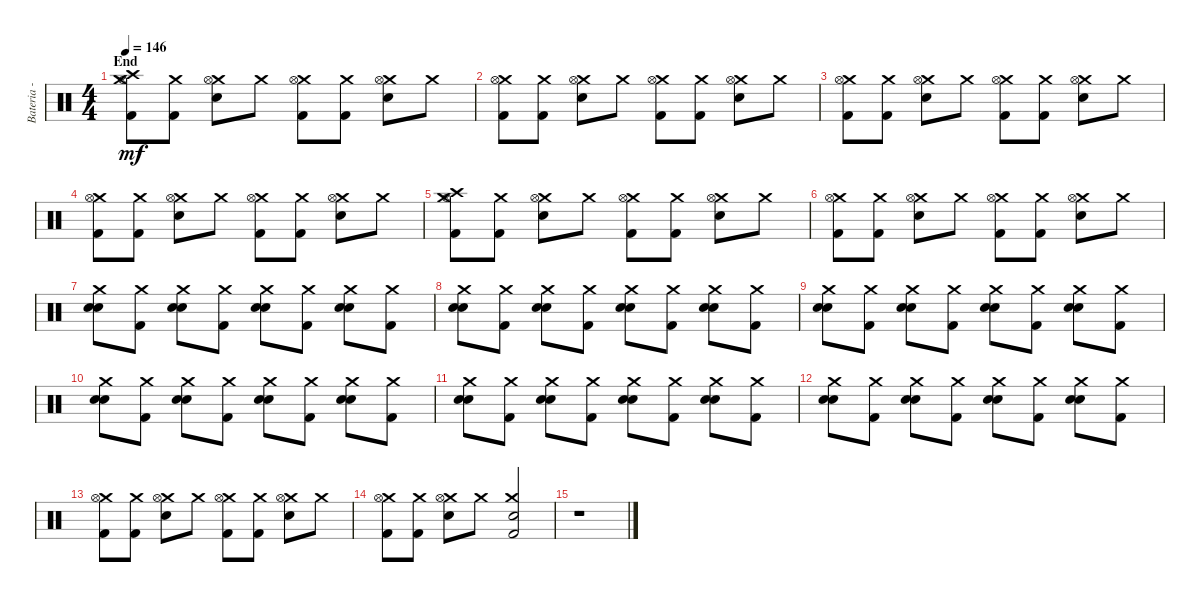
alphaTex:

\track ("Bateria - Larzon" "Bateria - ") {instrument percussion}
\staff {score}
\articulation defaults
\ts (4 4)
\section ("" "End")
\tempo 146
\clef neutral
\ks c
("Kick (hit) 2" "Crash medium (hit)" "Crash high (hit)" "Hi-Hat (open)").8{dy mf} ("Kick (hit) 2" "Crash medium (hit)").8 ("Electric Snare (hit)" "Crash medium (hit)" "Hi-Hat (open)").8 "Crash medium (hit)".8 ("Kick (hit) 2" "Crash medium (hit)" "Hi-Hat (open)").8 ("Kick (hit) 2" "Crash medium (hit)").8 ("Electric Snare (hit)" "Crash medium (hit)" "Hi-Hat (open)").8 "Crash medium (hit)".8 |
("Kick (hit) 2" "Crash medium (hit)" "Hi-Hat (open)").8 ("Kick (hit) 2" "Crash medium (hit)").8 ("Electric Snare (hit)" "Crash medium (hit)" "Hi-Hat (open)").8 "Crash medium (hit)".8 ("Kick (hit) 2" "Crash medium (hit)" "Hi-Hat (open)").8 ("Kick (hit) 2" "Crash medium (hit)").8 ("Electric Snare (hit)" "Crash medium (hit)" "Hi-Hat (open)").8 "Crash medium (hit)".8 |
("Kick (hit) 2" "Crash medium (hit)" "Hi-Hat (open)").8 ("Kick (hit) 2" "Crash medium (hit)").8 ("Electric Snare (hit)" "Crash medium (hit)" "Hi-Hat (open)").8 "Crash medium (hit)".8 ("Kick (hit) 2" "Crash medium (hit)" "Hi-Hat (open)").8 ("Kick (hit) 2" "Crash medium (hit)").8 ("Electric Snare (hit)" "Crash medium (hit)" "Hi-Hat (open)").8 "Crash medium (hit)".8 |
("Kick (hit) 2" "Crash medium (hit)" "Hi-Hat (open)").8 ("Kick (hit) 2" "Crash medium (hit)").8 ("Electric Snare (hit)" "Crash medium (hit)" "Hi-Hat (open)").8 "Crash medium (hit)".8 ("Kick (hit) 2" "Crash medium (hit)" "Hi-Hat (open)").8 ("Kick (hit) 2" "Crash medium (hit)").8 ("Electric Snare (hit)" "Crash medium (hit)" "Hi-Hat (open)").8 "Crash medium (hit)".8 |
("Kick (hit) 2" "Crash medium (hit)" "Crash high (hit)" "Hi-Hat (open)").8 ("Kick (hit) 2" "Crash medium (hit)").8 ("Electric Snare (hit)" "Crash medium (hit)" "Hi-Hat (open)").8 "Crash medium (hit)".8 ("Kick (hit) 2" "Crash medium (hit)" "Hi-Hat (open)").8 ("Kick (hit) 2" "Crash medium (hit)").8 ("Electric Snare (hit)" "Crash medium (hit)" "Hi-Hat (open)").8 "Crash medium (hit)".8 |
("Kick (hit) 2" "Crash medium (hit)" "Hi-Hat (open)").8 ("Kick (hit) 2" "Crash medium (hit)").8 ("Electric Snare (hit)" "Crash medium (hit)" "Hi-Hat (open)").8 "Crash medium (hit)".8 ("Kick (hit) 2" "Crash medium (hit)" "Hi-Hat (open)").8 ("Kick (hit) 2" "Crash medium (hit)").8 ("Electric Snare (hit)" "Crash medium (hit)" "Hi-Hat (open)").8 "Crash medium (hit)".8 |
("Electric Snare (hit)" "Crash medium (hit)" "Electric Snare (hit)").8 ("Kick (hit) 2" "Crash medium (hit)").8 ("Electric Snare (hit)" "Crash medium (hit)" "Electric Snare (hit)").8 ("Kick (hit) 2" "Crash medium (hit)").8 ("Electric Snare (hit)" "Crash medium (hit)" "Electric Snare (hit)").8 ("Kick (hit) 2" "Crash medium (hit)").8 ("Electric Snare (hit)" "Crash medium (hit)" "Electric Snare (hit)").8 ("Kick (hit) 2" "Crash medium (hit)").8 |
("Electric Snare (hit)" "Crash medium (hit)" "Electric Snare (hit)").8 ("Kick (hit) 2" "Crash medium (hit)").8 ("Electric Snare (hit)" "Crash medium (hit)" "Electric Snare (hit)").8 ("Kick (hit) 2" "Crash medium (hit)").8 ("Electric Snare (hit)" "Crash medium (hit)" "Electric Snare (hit)").8 ("Kick (hit) 2" "Crash medium (hit)").8 ("Electric Snare (hit)" "Crash medium (hit)" "Electric Snare (hit)").8 ("Kick (hit) 2" "Crash medium (hit)").8 |
("Electric Snare (hit)" "Crash medium (hit)" "Electric Snare (hit)").8 ("Kick (hit) 2" "Crash medium (hit)").8 ("Electric Snare (hit)" "Crash medium (hit)" "Electric Snare (hit)").8 ("Kick (hit) 2" "Crash medium (hit)").8 ("Electric Snare (hit)" "Crash medium (hit)" "Electric Snare (hit)").8 ("Kick (hit) 2" "Crash medium (hit)").8 ("Electric Snare (hit)" "Crash medium (hit)" "Electric Snare (hit)").8 ("Kick (hit) 2" "Crash medium (hit)").8 |
("Electric Snare (hit)" "Crash medium (hit)" "Electric Snare (hit)").8 ("Kick (hit) 2" "Crash medium (hit)").8 ("Electric Snare (hit)" "Crash medium (hit)" "Electric Snare (hit)").8 ("Kick (hit) 2" "Crash medium (hit)").8 ("Electric Snare (hit)" "Crash medium (hit)" "Electric Snare (hit)").8 ("Kick (hit) 2" "Crash medium (hit)").8 ("Electric Snare (hit)" "Crash medium (hit)" "Electric Snare (hit)").8 ("Kick (hit) 2" "Crash medium (hit)").8 |
("Electric Snare (hit)" "Crash medium (hit)" "Electric Snare (hit)").8 ("Kick (hit) 2" "Crash medium (hit)").8 ("Electric Snare (hit)" "Crash medium (hit)" "Electric Snare (hit)").8 ("Kick (hit) 2" "Crash medium (hit)").8 ("Electric Snare (hit)" "Crash medium (hit)" "Electric Snare (hit)").8 ("Kick (hit) 2" "Crash medium (hit)").8 ("Electric Snare (hit)" "Crash medium (hit)" "Electric Snare (hit)").8 ("Kick (hit) 2" "Crash medium (hit)").8 |
("Electric Snare (hit)" "Crash medium (hit)" "Electric Snare (hit)").8 ("Kick (hit) 2" "Crash medium (hit)").8 ("Electric Snare (hit)" "Crash medium (hit)" "Electric Snare (hit)").8 ("Kick (hit) 2" "Crash medium (hit)").8 ("Electric Snare (hit)" "Crash medium (hit)" "Electric Snare (hit)").8 ("Kick (hit) 2" "Crash medium (hit)").8 ("Electric Snare (hit)" "Crash medium (hit)" "Electric Snare (hit)").8 ("Kick (hit) 2" "Crash medium (hit)").8 |
("Kick (hit) 2" "Crash medium (hit)" "Hi-Hat (open)").8 ("Kick (hit) 2" "Crash medium (hit)").8 ("Electric Snare (hit)" "Crash medium (hit)" "Hi-Hat (open)").8 "Crash medium (hit)".8 ("Kick (hit) 2" "Crash medium (hit)" "Hi-Hat (open)").8 ("Kick (hit) 2" "Crash medium (hit)").8 ("Electric Snare (hit)" "Crash medium (hit)" "Hi-Hat (open)").8 "Crash medium (hit)".8 |
("Kick (hit) 2" "Crash medium (hit)" "Hi-Hat (open)").8 ("Kick (hit) 2" "Crash medium (hit)").8 ("Electric Snare (hit)" "Crash medium (hit)" "Hi-Hat (open)").8 "Crash medium (hit)".8 ("Kick (hit) 2" "Electric Snare (hit)" "Crash medium (hit)").2 |
r.1
